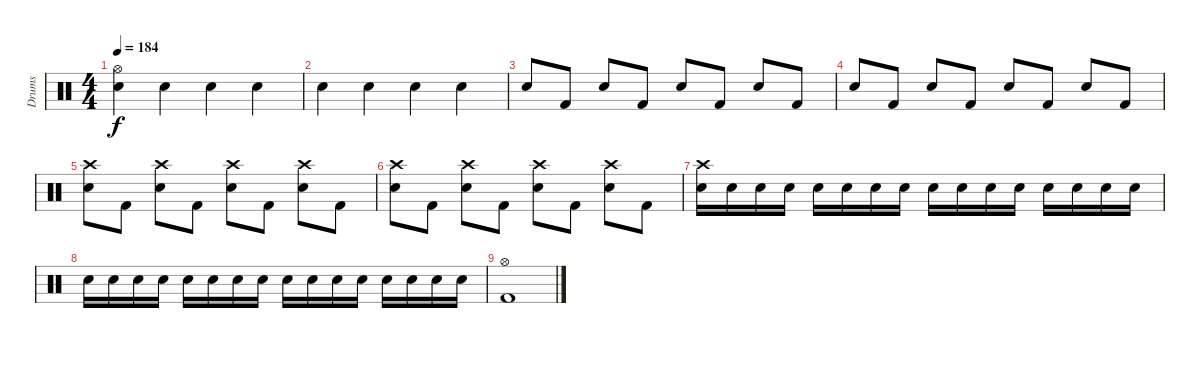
\track ("Drums" "Drums") {instrument percussion}
\staff {score}
\articulation defaults
\ts (4 4)
\tempo 184
\clef neutral
\ks c
("Hi-Hat (open)" "Snare (hit) 2").4{dy f} "Snare (hit) 2".4 "Snare (hit) 2".4 "Snare (hit) 2".4 |
"Snare (hit) 2".4 "Snare (hit) 2".4 "Snare (hit) 2".4 "Snare (hit) 2".4 |
"Snare (hit) 2".8 "Kick (hit) 2".8 "Snare (hit) 2".8 "Kick (hit) 2".8 "Snare (hit) 2".8 "Kick (hit) 2".8 "Snare (hit) 2".8 "Kick (hit) 2".8 |
"Snare (hit) 2".8 "Kick (hit) 2".8 "Snare (hit) 2".8 "Kick (hit) 2".8 "Snare (hit) 2".8 "Kick (hit) 2".8 "Snare (hit) 2".8 "Kick (hit) 2".8 |
("Crash high (hit)" "Snare (hit) 2").8 "Kick (hit) 2".8 ("Crash high (hit)" "Snare (hit) 2").8 "Kick (hit) 2".8 ("Crash high (hit)" "Snare (hit) 2").8 "Kick (hit) 2".8 ("Crash high (hit)" "Snare (hit) 2").8 "Kick (hit) 2".8 |
("Crash high (hit)" "Snare (hit) 2").8 "Kick (hit) 2".8 ("Crash high (hit)" "Snare (hit) 2").8 "Kick (hit) 2".8 ("Crash high (hit)" "Snare (hit) 2").8 "Kick (hit) 2".8 ("Crash high (hit)" "Snare (hit) 2").8 "Kick (hit) 2".8 |
("Crash high (hit)" "Snare (hit) 2").16 "Snare (hit) 2".16 "Snare (hit) 2".16 "Snare (hit) 2".16 "Snare (hit) 2".16 "Snare (hit) 2".16 "Snare (hit) 2".16 "Snare (hit) 2".16 "Snare (hit) 2".16 "Snare (hit) 2".16 "Snare (hit) 2".16 "Snare (hit) 2".16 "Snare (hit) 2".16 "Snare (hit) 2".16 "Snare (hit) 2".16 "Snare (hit) 2".16 |
"Snare (hit) 2".16 "Snare (hit) 2".16 "Snare (hit) 2".16 "Snare (hit) 2".16 "Snare (hit) 2".16 "Snare (hit) 2".16 "Snare (hit) 2".16 "Snare (hit) 2".16 "Snare (hit) 2".16 "Snare (hit) 2".16 "Snare (hit) 2".16 "Snare (hit) 2".16 "Snare (hit) 2".16 "Snare (hit) 2".16 "Snare (hit) 2".16 "Snare (hit) 2".16 |
("Hi-Hat (open)" "Kick (hit) 2").1
